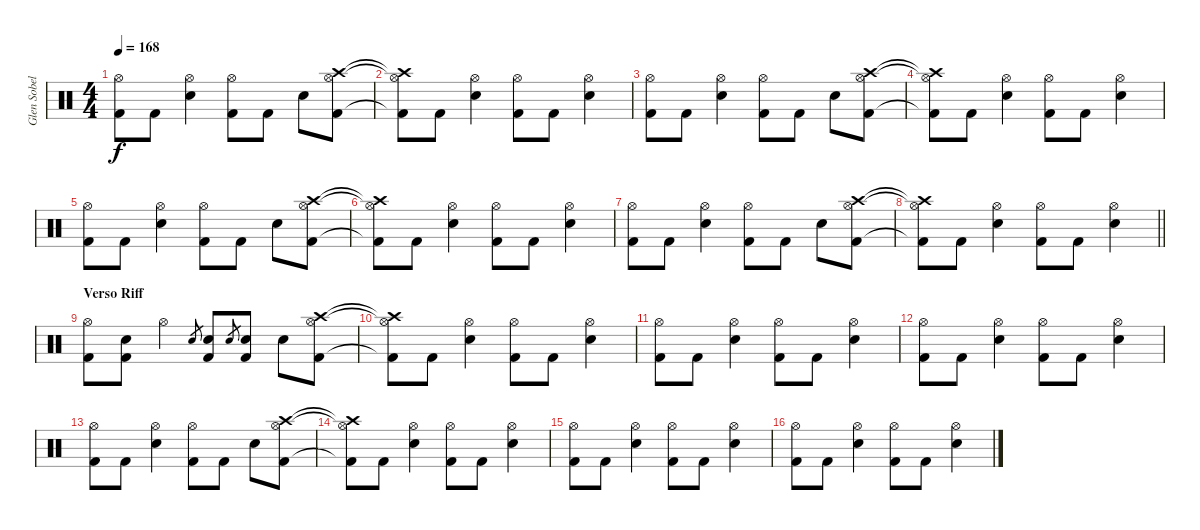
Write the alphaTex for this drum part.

\track ("Glen Sobel" "Glen Sobel") {instrument percussion}
\staff {score}
\articulation defaults
\ts (4 4)
\tempo 168
\clef neutral
\ks c
("Hi-Hat (open)" "Kick (hit) 2").8{dy f} "Kick (hit) 2".8 ("Hi-Hat (open)" "Snare (hit) 2").4 ("Hi-Hat (open)" "Kick (hit) 2").8 "Kick (hit) 2".8 "Snare (hit) 2".8 ("Hi-Hat (open)" "Crash high (hit)" "Kick (hit) 2").8 |
("Hi-Hat (open)"{t} "Crash high (hit)"{t} "Kick (hit) 2"{t}).8 "Kick (hit) 2".8 ("Hi-Hat (open)" "Snare (hit) 2").4 ("Hi-Hat (open)" "Kick (hit) 2").8 "Kick (hit) 2".8 ("Hi-Hat (open)" "Snare (hit) 2").4 |
("Hi-Hat (open)" "Kick (hit) 2").8 "Kick (hit) 2".8 ("Hi-Hat (open)" "Snare (hit) 2").4 ("Hi-Hat (open)" "Kick (hit) 2").8 "Kick (hit) 2".8 "Snare (hit) 2".8 ("Hi-Hat (open)" "Crash high (hit)" "Kick (hit) 2").8 |
("Hi-Hat (open)"{t} "Crash high (hit)"{t} "Kick (hit) 2"{t}).8 "Kick (hit) 2".8 ("Hi-Hat (open)" "Snare (hit) 2").4 ("Hi-Hat (open)" "Kick (hit) 2").8 "Kick (hit) 2".8 ("Hi-Hat (open)" "Snare (hit) 2").4 |
("Hi-Hat (open)" "Kick (hit) 2").8 "Kick (hit) 2".8 ("Hi-Hat (open)" "Snare (hit) 2").4 ("Hi-Hat (open)" "Kick (hit) 2").8 "Kick (hit) 2".8 "Snare (hit) 2".8 ("Hi-Hat (open)" "Crash high (hit)" "Kick (hit) 2").8 |
("Hi-Hat (open)"{t} "Crash high (hit)"{t} "Kick (hit) 2"{t}).8 "Kick (hit) 2".8 ("Hi-Hat (open)" "Snare (hit) 2").4 ("Hi-Hat (open)" "Kick (hit) 2").8 "Kick (hit) 2".8 ("Hi-Hat (open)" "Snare (hit) 2").4 |
("Hi-Hat (open)" "Kick (hit) 2").8 "Kick (hit) 2".8 ("Hi-Hat (open)" "Snare (hit) 2").4 ("Hi-Hat (open)" "Kick (hit) 2").8 "Kick (hit) 2".8 "Snare (hit) 2".8 ("Hi-Hat (open)" "Crash high (hit)" "Kick (hit) 2").8 |
\barLineRight lightlight
("Hi-Hat (open)"{t} "Crash high (hit)"{t} "Kick (hit) 2"{t}).8 "Kick (hit) 2".8 ("Hi-Hat (open)" "Snare (hit) 2").4 ("Hi-Hat (open)" "Kick (hit) 2").8 "Kick (hit) 2".8 ("Hi-Hat (open)" "Snare (hit) 2").4 |
\section ("" "Verso Riff")
("Hi-Hat (open)" "Kick (hit) 2").8 ("Snare (hit) 2" "Kick (hit) 2").8 "Hi-Hat (open)".4 "Snare (hit) 2".8{gr} ("Snare (hit) 2" "Kick (hit) 2").8 "Snare (hit) 2".8{gr} ("Snare (hit) 2" "Kick (hit) 2").8 "Snare (hit) 2".8 ("Hi-Hat (open)" "Crash high (hit)" "Kick (hit) 2").8 |
("Hi-Hat (open)"{t} "Crash high (hit)"{t} "Kick (hit) 2"{t}).8 "Kick (hit) 2".8 ("Hi-Hat (open)" "Snare (hit) 2").4 ("Hi-Hat (open)" "Kick (hit) 2").8 "Kick (hit) 2".8 ("Hi-Hat (open)" "Snare (hit) 2").4 |
("Hi-Hat (open)" "Kick (hit) 2").8 "Kick (hit) 2".8 ("Hi-Hat (open)" "Snare (hit) 2").4 ("Hi-Hat (open)" "Kick (hit) 2").8 "Kick (hit) 2".8 ("Hi-Hat (open)" "Snare (hit) 2").4 |
("Hi-Hat (open)" "Kick (hit) 2").8 "Kick (hit) 2".8 ("Hi-Hat (open)" "Snare (hit) 2").4 ("Hi-Hat (open)" "Kick (hit) 2").8 "Kick (hit) 2".8 ("Hi-Hat (open)" "Snare (hit) 2").4 |
("Hi-Hat (open)" "Kick (hit) 2").8 "Kick (hit) 2".8 ("Hi-Hat (open)" "Snare (hit) 2").4 ("Hi-Hat (open)" "Kick (hit) 2").8 "Kick (hit) 2".8 "Snare (hit) 2".8 ("Hi-Hat (open)" "Crash high (hit)" "Kick (hit) 2").8 |
("Hi-Hat (open)"{t} "Crash high (hit)"{t} "Kick (hit) 2"{t}).8 "Kick (hit) 2".8 ("Hi-Hat (open)" "Snare (hit) 2").4 ("Hi-Hat (open)" "Kick (hit) 2").8 "Kick (hit) 2".8 ("Hi-Hat (open)" "Snare (hit) 2").4 |
("Hi-Hat (open)" "Kick (hit) 2").8 "Kick (hit) 2".8 ("Hi-Hat (open)" "Snare (hit) 2").4 ("Hi-Hat (open)" "Kick (hit) 2").8 "Kick (hit) 2".8 ("Hi-Hat (open)" "Snare (hit) 2").4 |
("Hi-Hat (open)" "Kick (hit) 2").8 "Kick (hit) 2".8 ("Hi-Hat (open)" "Snare (hit) 2").4 ("Hi-Hat (open)" "Kick (hit) 2").8 "Kick (hit) 2".8 ("Hi-Hat (open)" "Snare (hit) 2").4
